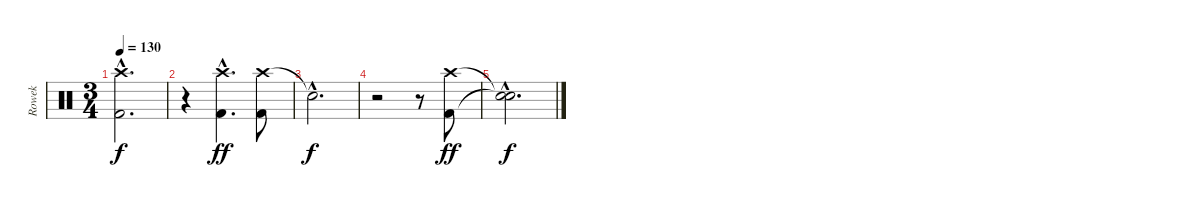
\track ("Rowek" "Rowek") {instrument percussion}
\staff {score}
\articulation defaults
\ts (3 4)
\tempo 130
\clef neutral
\ks c
("Crash high (hit)"{hac} "Kick (hit) 2"{hac}).2{d dy f} |
r.4 ("Crash high (hit)"{hac} "Kick (hit) 2"{hac}).4{d dy ff} ("Crash high (hit)" "Kick (hit) 2").8 |
"Snare (hit)"{hac t}.2{d dy f} |
r.2 r.8 ("Crash high (hit)" "Kick (hit) 2").8{dy ff} |
("Snare (hit)"{hac t} "Snare (hit)"{hac t}).2{d dy f}
